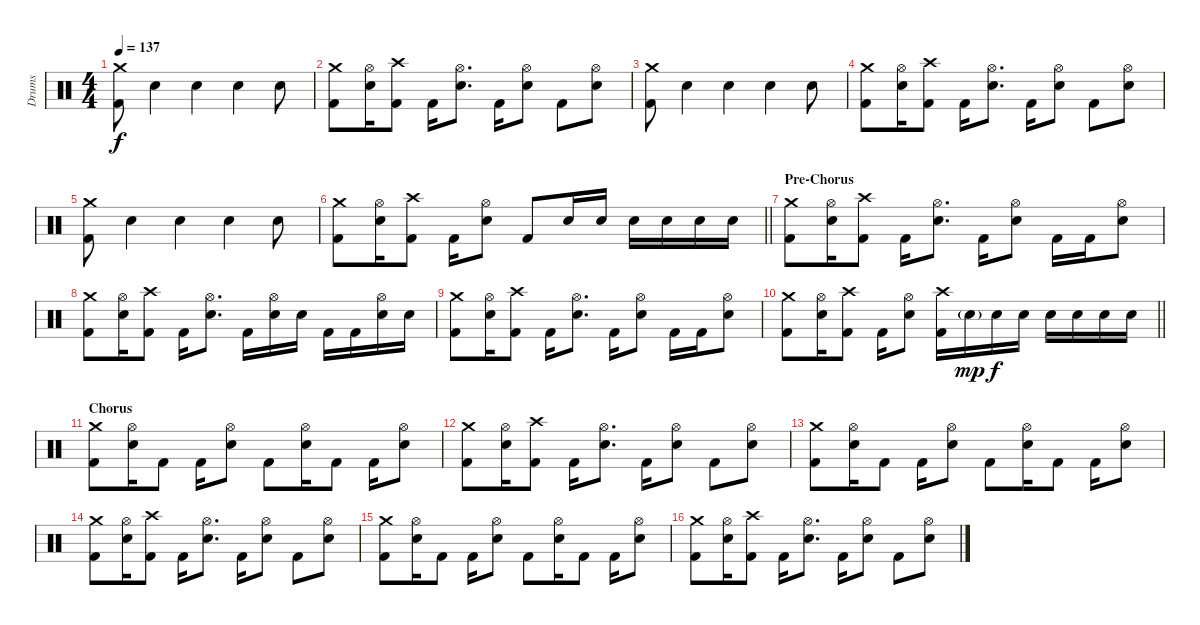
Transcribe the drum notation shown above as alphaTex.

\track ("Drums" "Drums") {instrument percussion}
\staff {score}
\articulation defaults
\ts (4 4)
\tempo 137
\clef neutral
\ks c
("Crash medium (hit)" "Kick (hit) 2").8{dy f} "Electric Snare (hit)".4 "Electric Snare (hit)".4 "Electric Snare (hit)".4 "Electric Snare (hit)".8 |
("Crash medium (hit)" "Kick (hit) 2").8 ("Hi-Hat (open)" "Electric Snare (hit)").16 ("Crash high (hit)" "Kick (hit) 2").8 "Kick (hit) 2".16 ("Hi-Hat (open)" "Electric Snare (hit)").8{d} "Kick (hit) 2".16 ("Hi-Hat (open)" "Electric Snare (hit)").8 "Kick (hit) 2".8 ("Hi-Hat (open)" "Electric Snare (hit)").8 |
("Crash medium (hit)" "Kick (hit) 2").8 "Electric Snare (hit)".4 "Electric Snare (hit)".4 "Electric Snare (hit)".4 "Electric Snare (hit)".8 |
("Crash medium (hit)" "Kick (hit) 2").8 ("Hi-Hat (open)" "Electric Snare (hit)").16 ("Crash high (hit)" "Kick (hit) 2").8 "Kick (hit) 2".16 ("Hi-Hat (open)" "Electric Snare (hit)").8{d} "Kick (hit) 2".16 ("Hi-Hat (open)" "Electric Snare (hit)").8 "Kick (hit) 2".8 ("Hi-Hat (open)" "Electric Snare (hit)").8 |
("Crash medium (hit)" "Kick (hit) 2").8 "Electric Snare (hit)".4 "Electric Snare (hit)".4 "Electric Snare (hit)".4 "Electric Snare (hit)".8 |
\barLineRight lightlight
("Crash medium (hit)" "Kick (hit) 2").8 ("Hi-Hat (open)" "Electric Snare (hit)").16 ("Crash high (hit)" "Kick (hit) 2").8 "Kick (hit) 2".16 ("Hi-Hat (open)" "Electric Snare (hit)").8 "Kick (hit) 2".8 "Electric Snare (hit)".16 "Electric Snare (hit)".16 "Electric Snare (hit)".16 "Electric Snare (hit)".16 "Electric Snare (hit)".16 "Electric Snare (hit)".16 |
\section ("" "Pre-Chorus")
("Crash medium (hit)" "Kick (hit) 2").8 ("Hi-Hat (open)" "Electric Snare (hit)").16 ("Crash high (hit)" "Kick (hit) 2").8 "Kick (hit) 2".16 ("Hi-Hat (open)" "Electric Snare (hit)").8{d} "Kick (hit) 2".16 ("Hi-Hat (open)" "Electric Snare (hit)").8 "Kick (hit) 2".16 "Kick (hit) 2".16 ("Hi-Hat (open)" "Electric Snare (hit)").8 |
("Crash medium (hit)" "Kick (hit) 2").8 ("Hi-Hat (open)" "Electric Snare (hit)").16 ("Crash high (hit)" "Kick (hit) 2").8 "Kick (hit) 2".16 ("Hi-Hat (open)" "Electric Snare (hit)").8{d} "Kick (hit) 2".16 ("Hi-Hat (open)" "Electric Snare (hit)").16 "Electric Snare (hit)".16 "Kick (hit) 2".16 "Kick (hit) 2".16 ("Hi-Hat (open)" "Electric Snare (hit)").16 "Electric Snare (hit)".16 |
("Crash medium (hit)" "Kick (hit) 2").8 ("Hi-Hat (open)" "Electric Snare (hit)").16 ("Crash high (hit)" "Kick (hit) 2").8 "Kick (hit) 2".16 ("Hi-Hat (open)" "Electric Snare (hit)").8{d} "Kick (hit) 2".16 ("Hi-Hat (open)" "Electric Snare (hit)").8 "Kick (hit) 2".16 "Kick (hit) 2".16 ("Hi-Hat (open)" "Electric Snare (hit)").8 |
\barLineRight lightlight
("Crash medium (hit)" "Kick (hit) 2").8 ("Hi-Hat (open)" "Electric Snare (hit)").16 ("Crash high (hit)" "Kick (hit) 2").8 "Kick (hit) 2".16 ("Hi-Hat (open)" "Electric Snare (hit)").8 ("Crash high (hit)" "Kick (hit) 2").16 "Electric Snare (hit)"{g}.16{dy mp} "Electric Snare (hit)".16{dy f} "Electric Snare (hit)".16 "Electric Snare (hit)".16 "Electric Snare (hit)".16 "Electric Snare (hit)".16 "Electric Snare (hit)".16 |
\section ("" "Chorus")
("Crash medium (hit)" "Kick (hit) 2").8 ("Hi-Hat (open)" "Electric Snare (hit)").16 "Kick (hit) 2".8 "Kick (hit) 2".16 ("Hi-Hat (open)" "Electric Snare (hit)").8 "Kick (hit) 2".8 ("Hi-Hat (open)" "Electric Snare (hit)").16 "Kick (hit) 2".8 "Kick (hit) 2".16 ("Hi-Hat (open)" "Electric Snare (hit)").8 |
("Crash medium (hit)" "Kick (hit) 2").8 ("Hi-Hat (open)" "Electric Snare (hit)").16 ("Crash high (hit)" "Kick (hit) 2").8 "Kick (hit) 2".16 ("Hi-Hat (open)" "Electric Snare (hit)").8{d} "Kick (hit) 2".16 ("Hi-Hat (open)" "Electric Snare (hit)").8 "Kick (hit) 2".8 ("Hi-Hat (open)" "Electric Snare (hit)").8 |
("Crash medium (hit)" "Kick (hit) 2").8 ("Hi-Hat (open)" "Electric Snare (hit)").16 "Kick (hit) 2".8 "Kick (hit) 2".16 ("Hi-Hat (open)" "Electric Snare (hit)").8 "Kick (hit) 2".8 ("Hi-Hat (open)" "Electric Snare (hit)").16 "Kick (hit) 2".8 "Kick (hit) 2".16 ("Hi-Hat (open)" "Electric Snare (hit)").8 |
("Crash medium (hit)" "Kick (hit) 2").8 ("Hi-Hat (open)" "Electric Snare (hit)").16 ("Crash high (hit)" "Kick (hit) 2").8 "Kick (hit) 2".16 ("Hi-Hat (open)" "Electric Snare (hit)").8{d} "Kick (hit) 2".16 ("Hi-Hat (open)" "Electric Snare (hit)").8 "Kick (hit) 2".8 ("Hi-Hat (open)" "Electric Snare (hit)").8 |
("Crash medium (hit)" "Kick (hit) 2").8 ("Hi-Hat (open)" "Electric Snare (hit)").16 "Kick (hit) 2".8 "Kick (hit) 2".16 ("Hi-Hat (open)" "Electric Snare (hit)").8 "Kick (hit) 2".8 ("Hi-Hat (open)" "Electric Snare (hit)").16 "Kick (hit) 2".8 "Kick (hit) 2".16 ("Hi-Hat (open)" "Electric Snare (hit)").8 |
("Crash medium (hit)" "Kick (hit) 2").8 ("Hi-Hat (open)" "Electric Snare (hit)").16 ("Crash high (hit)" "Kick (hit) 2").8 "Kick (hit) 2".16 ("Hi-Hat (open)" "Electric Snare (hit)").8{d} "Kick (hit) 2".16 ("Hi-Hat (open)" "Electric Snare (hit)").8 "Kick (hit) 2".8 ("Hi-Hat (open)" "Electric Snare (hit)").8
